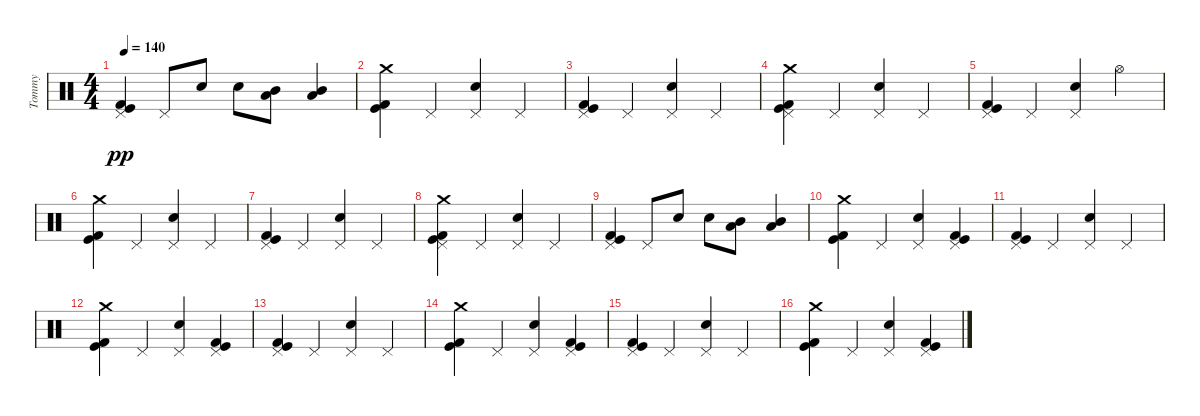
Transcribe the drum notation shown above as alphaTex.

\track ("Tommy" "Tommy") {instrument percussion}
\staff {score}
\articulation defaults
\ts (4 4)
\tempo 140
\clef neutral
\ks c
("Pedal Hi-Hat (hit)" "Kick (hit) 2" "Kick (hit)").4{dy pp} "Pedal Hi-Hat (hit)".8 "Snare (hit) 2".8 "Snare (hit) 2".8 ("Low Tom (hit)" "Mid Tom (hit)").8 ("Low Tom (hit)" "Mid Tom (hit)").4 |
("Kick (hit) 2" "Kick (hit)" "Crash medium (hit)").4 "Pedal Hi-Hat (hit)".4 ("Pedal Hi-Hat (hit)" "Snare (hit) 2").4 "Pedal Hi-Hat (hit)".4 |
("Pedal Hi-Hat (hit)" "Kick (hit) 2" "Kick (hit)").4 "Pedal Hi-Hat (hit)".4 ("Pedal Hi-Hat (hit)" "Snare (hit) 2").4 "Pedal Hi-Hat (hit)".4 |
("Crash medium (hit)" "Pedal Hi-Hat (hit)" "Kick (hit) 2" "Kick (hit)").4 "Pedal Hi-Hat (hit)".4 ("Pedal Hi-Hat (hit)" "Snare (hit) 2").4 "Pedal Hi-Hat (hit)".4 |
("Pedal Hi-Hat (hit)" "Kick (hit) 2" "Kick (hit)").4 "Pedal Hi-Hat (hit)".4 ("Pedal Hi-Hat (hit)" "Snare (hit) 2").4 "Hi-Hat (open)".4 |
("Kick (hit) 2" "Kick (hit)" "Crash medium (hit)").4 "Pedal Hi-Hat (hit)".4 ("Pedal Hi-Hat (hit)" "Snare (hit) 2").4 "Pedal Hi-Hat (hit)".4 |
("Pedal Hi-Hat (hit)" "Kick (hit) 2" "Kick (hit)").4 "Pedal Hi-Hat (hit)".4 ("Pedal Hi-Hat (hit)" "Snare (hit) 2").4 "Pedal Hi-Hat (hit)".4 |
("Crash medium (hit)" "Pedal Hi-Hat (hit)" "Kick (hit) 2" "Kick (hit)").4 "Pedal Hi-Hat (hit)".4 ("Pedal Hi-Hat (hit)" "Snare (hit) 2").4 "Pedal Hi-Hat (hit)".4 |
("Pedal Hi-Hat (hit)" "Kick (hit) 2" "Kick (hit)").4 "Pedal Hi-Hat (hit)".8 "Snare (hit) 2".8 "Snare (hit) 2".8 ("Low Tom (hit)" "Mid Tom (hit)").8 ("Low Tom (hit)" "Mid Tom (hit)").4 |
("Kick (hit) 2" "Kick (hit)" "Crash medium (hit)").4 "Pedal Hi-Hat (hit)".4 ("Pedal Hi-Hat (hit)" "Snare (hit) 2").4 ("Kick (hit)" "Kick (hit) 2" "Pedal Hi-Hat (hit)").4 |
("Pedal Hi-Hat (hit)" "Kick (hit) 2" "Kick (hit)").4 "Pedal Hi-Hat (hit)".4 ("Pedal Hi-Hat (hit)" "Snare (hit) 2").4 "Pedal Hi-Hat (hit)".4 |
("Kick (hit) 2" "Kick (hit)" "Crash medium (hit)").4 "Pedal Hi-Hat (hit)".4 ("Pedal Hi-Hat (hit)" "Snare (hit) 2").4 ("Kick (hit)" "Kick (hit) 2" "Pedal Hi-Hat (hit)").4 |
("Pedal Hi-Hat (hit)" "Kick (hit) 2" "Kick (hit)").4 "Pedal Hi-Hat (hit)".4 ("Pedal Hi-Hat (hit)" "Snare (hit) 2").4 "Pedal Hi-Hat (hit)".4 |
("Kick (hit) 2" "Kick (hit)" "Crash medium (hit)").4 "Pedal Hi-Hat (hit)".4 ("Pedal Hi-Hat (hit)" "Snare (hit) 2").4 ("Kick (hit)" "Kick (hit) 2" "Pedal Hi-Hat (hit)").4 |
("Pedal Hi-Hat (hit)" "Kick (hit) 2" "Kick (hit)").4 "Pedal Hi-Hat (hit)".4 ("Pedal Hi-Hat (hit)" "Snare (hit) 2").4 "Pedal Hi-Hat (hit)".4 |
("Kick (hit) 2" "Kick (hit)" "Crash medium (hit)").4 "Pedal Hi-Hat (hit)".4 ("Pedal Hi-Hat (hit)" "Snare (hit) 2").4 ("Kick (hit)" "Kick (hit) 2" "Pedal Hi-Hat (hit)").4
